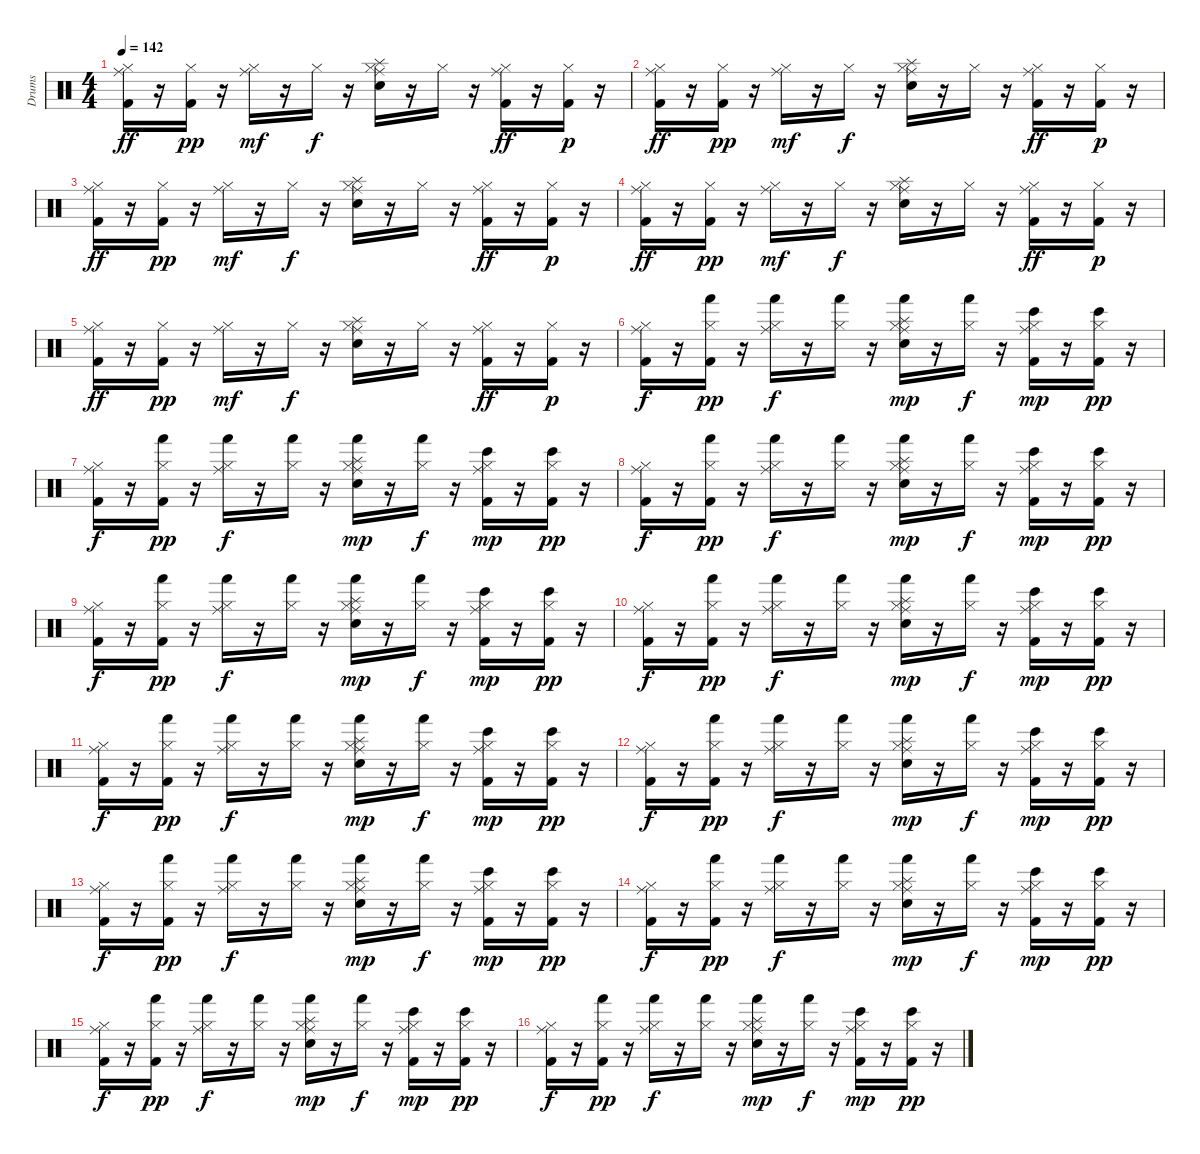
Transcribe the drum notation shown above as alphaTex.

\track ("Drums" "Drums") {instrument percussion}
\staff {score}
\articulation defaults
\ts (4 4)
\tempo 142
\clef neutral
\ks c
("Ride (middle)" "Hi-Hat (closed)" "Kick (hit) 2").16{dy ff} r.16 ("Hi-Hat (closed)" "Kick (hit) 2").16{dy pp} r.16 ("Ride (middle)" "Hi-Hat (closed)").16{dy mf} r.16 "Hi-Hat (closed)".16{dy f} r.16 ("Ride (middle)" "Hi-Hat (closed)" "Splash (hit)" "Snare (hit) 2").16 r.16 "Hi-Hat (closed)".16 r.16 ("Ride (middle)" "Hi-Hat (closed)" "Kick (hit) 2").16{dy ff} r.16 ("Hi-Hat (closed)" "Kick (hit) 2").16{dy p} r.16 |
("Ride (middle)" "Hi-Hat (closed)" "Kick (hit) 2").16{dy ff} r.16 ("Hi-Hat (closed)" "Kick (hit) 2").16{dy pp} r.16 ("Ride (middle)" "Hi-Hat (closed)").16{dy mf} r.16 "Hi-Hat (closed)".16{dy f} r.16 ("Ride (middle)" "Hi-Hat (closed)" "Splash (hit)" "Snare (hit) 2").16 r.16 "Hi-Hat (closed)".16 r.16 ("Ride (middle)" "Hi-Hat (closed)" "Kick (hit) 2").16{dy ff} r.16 ("Hi-Hat (closed)" "Kick (hit) 2").16{dy p} r.16 |
("Ride (middle)" "Hi-Hat (closed)" "Kick (hit) 2").16{dy ff} r.16 ("Hi-Hat (closed)" "Kick (hit) 2").16{dy pp} r.16 ("Ride (middle)" "Hi-Hat (closed)").16{dy mf} r.16 "Hi-Hat (closed)".16{dy f} r.16 ("Ride (middle)" "Hi-Hat (closed)" "Splash (hit)" "Snare (hit) 2").16 r.16 "Hi-Hat (closed)".16 r.16 ("Ride (middle)" "Hi-Hat (closed)" "Kick (hit) 2").16{dy ff} r.16 ("Hi-Hat (closed)" "Kick (hit) 2").16{dy p} r.16 |
("Ride (middle)" "Hi-Hat (closed)" "Kick (hit) 2").16{dy ff} r.16 ("Hi-Hat (closed)" "Kick (hit) 2").16{dy pp} r.16 ("Ride (middle)" "Hi-Hat (closed)").16{dy mf} r.16 "Hi-Hat (closed)".16{dy f} r.16 ("Ride (middle)" "Hi-Hat (closed)" "Splash (hit)" "Snare (hit) 2").16 r.16 "Hi-Hat (closed)".16 r.16 ("Ride (middle)" "Hi-Hat (closed)" "Kick (hit) 2").16{dy ff} r.16 ("Hi-Hat (closed)" "Kick (hit) 2").16{dy p} r.16 |
("Ride (middle)" "Hi-Hat (closed)" "Kick (hit) 2").16{dy ff} r.16 ("Hi-Hat (closed)" "Kick (hit) 2").16{dy pp} r.16 ("Ride (middle)" "Hi-Hat (closed)").16{dy mf} r.16 "Hi-Hat (closed)".16{dy f} r.16 ("Ride (middle)" "Hi-Hat (closed)" "Splash (hit)" "Snare (hit) 2").16 r.16 "Hi-Hat (closed)".16 r.16 ("Ride (middle)" "Hi-Hat (closed)" "Kick (hit) 2").16{dy ff} r.16 ("Hi-Hat (closed)" "Kick (hit) 2").16{dy p} r.16 |
("Ride (middle)" "Hi-Hat (closed)" "Kick (hit) 2").16{dy f} r.16 ("Hi-Hat (closed)" "Hand (hit)" "Kick (hit) 2").16{dy pp} r.16 ("Ride (middle)" "Hi-Hat (closed)" "Hand (hit)").16{dy f} r.16 ("Hi-Hat (closed)" "Hand (hit)").16 r.16 ("Ride (middle)" "Hi-Hat (closed)" "Splash (hit)" "Hand (hit)" "Snare (hit) 2").16{dy mp} r.16 ("Hi-Hat (closed)" "Hand (hit)").16{dy f} r.16 ("Ride (middle)" "Hi-Hat (closed)" "Bongo High (hit)" "Kick (hit) 2").16{dy mp} r.16 ("Hi-Hat (closed)" "Bongo High (hit)" "Kick (hit) 2").16{dy pp} r.16 |
("Ride (middle)" "Hi-Hat (closed)" "Kick (hit) 2").16{dy f} r.16 ("Hi-Hat (closed)" "Hand (hit)" "Kick (hit) 2").16{dy pp} r.16 ("Ride (middle)" "Hi-Hat (closed)" "Hand (hit)").16{dy f} r.16 ("Hi-Hat (closed)" "Hand (hit)").16 r.16 ("Ride (middle)" "Hi-Hat (closed)" "Splash (hit)" "Hand (hit)" "Snare (hit) 2").16{dy mp} r.16 ("Hi-Hat (closed)" "Hand (hit)").16{dy f} r.16 ("Ride (middle)" "Hi-Hat (closed)" "Bongo High (hit)" "Kick (hit) 2").16{dy mp} r.16 ("Hi-Hat (closed)" "Bongo High (hit)" "Kick (hit) 2").16{dy pp} r.16 |
("Ride (middle)" "Hi-Hat (closed)" "Kick (hit) 2").16{dy f} r.16 ("Hi-Hat (closed)" "Hand (hit)" "Kick (hit) 2").16{dy pp} r.16 ("Ride (middle)" "Hi-Hat (closed)" "Hand (hit)").16{dy f} r.16 ("Hi-Hat (closed)" "Hand (hit)").16 r.16 ("Ride (middle)" "Hi-Hat (closed)" "Splash (hit)" "Hand (hit)" "Snare (hit) 2").16{dy mp} r.16 ("Hi-Hat (closed)" "Hand (hit)").16{dy f} r.16 ("Ride (middle)" "Hi-Hat (closed)" "Bongo High (hit)" "Kick (hit) 2").16{dy mp} r.16 ("Hi-Hat (closed)" "Bongo High (hit)" "Kick (hit) 2").16{dy pp} r.16 |
("Ride (middle)" "Hi-Hat (closed)" "Kick (hit) 2").16{dy f} r.16 ("Hi-Hat (closed)" "Hand (hit)" "Kick (hit) 2").16{dy pp} r.16 ("Ride (middle)" "Hi-Hat (closed)" "Hand (hit)").16{dy f} r.16 ("Hi-Hat (closed)" "Hand (hit)").16 r.16 ("Ride (middle)" "Hi-Hat (closed)" "Splash (hit)" "Hand (hit)" "Snare (hit) 2").16{dy mp} r.16 ("Hi-Hat (closed)" "Hand (hit)").16{dy f} r.16 ("Ride (middle)" "Hi-Hat (closed)" "Bongo High (hit)" "Kick (hit) 2").16{dy mp} r.16 ("Hi-Hat (closed)" "Bongo High (hit)" "Kick (hit) 2").16{dy pp} r.16 |
("Ride (middle)" "Hi-Hat (closed)" "Kick (hit) 2").16{dy f} r.16 ("Hi-Hat (closed)" "Hand (hit)" "Kick (hit) 2").16{dy pp} r.16 ("Ride (middle)" "Hi-Hat (closed)" "Hand (hit)").16{dy f} r.16 ("Hi-Hat (closed)" "Hand (hit)").16 r.16 ("Ride (middle)" "Hi-Hat (closed)" "Splash (hit)" "Hand (hit)" "Snare (hit) 2").16{dy mp} r.16 ("Hi-Hat (closed)" "Hand (hit)").16{dy f} r.16 ("Ride (middle)" "Hi-Hat (closed)" "Bongo High (hit)" "Kick (hit) 2").16{dy mp} r.16 ("Hi-Hat (closed)" "Bongo High (hit)" "Kick (hit) 2").16{dy pp} r.16 |
("Ride (middle)" "Hi-Hat (closed)" "Kick (hit) 2").16{dy f} r.16 ("Hi-Hat (closed)" "Hand (hit)" "Kick (hit) 2").16{dy pp} r.16 ("Ride (middle)" "Hi-Hat (closed)" "Hand (hit)").16{dy f} r.16 ("Hi-Hat (closed)" "Hand (hit)").16 r.16 ("Ride (middle)" "Hi-Hat (closed)" "Splash (hit)" "Hand (hit)" "Snare (hit) 2").16{dy mp} r.16 ("Hi-Hat (closed)" "Hand (hit)").16{dy f} r.16 ("Ride (middle)" "Hi-Hat (closed)" "Bongo High (hit)" "Kick (hit) 2").16{dy mp} r.16 ("Hi-Hat (closed)" "Bongo High (hit)" "Kick (hit) 2").16{dy pp} r.16 |
("Ride (middle)" "Hi-Hat (closed)" "Kick (hit) 2").16{dy f} r.16 ("Hi-Hat (closed)" "Hand (hit)" "Kick (hit) 2").16{dy pp} r.16 ("Ride (middle)" "Hi-Hat (closed)" "Hand (hit)").16{dy f} r.16 ("Hi-Hat (closed)" "Hand (hit)").16 r.16 ("Ride (middle)" "Hi-Hat (closed)" "Splash (hit)" "Hand (hit)" "Snare (hit) 2").16{dy mp} r.16 ("Hi-Hat (closed)" "Hand (hit)").16{dy f} r.16 ("Ride (middle)" "Hi-Hat (closed)" "Bongo High (hit)" "Kick (hit) 2").16{dy mp} r.16 ("Hi-Hat (closed)" "Bongo High (hit)" "Kick (hit) 2").16{dy pp} r.16 |
("Ride (middle)" "Hi-Hat (closed)" "Kick (hit) 2").16{dy f} r.16 ("Hi-Hat (closed)" "Hand (hit)" "Kick (hit) 2").16{dy pp} r.16 ("Ride (middle)" "Hi-Hat (closed)" "Hand (hit)").16{dy f} r.16 ("Hi-Hat (closed)" "Hand (hit)").16 r.16 ("Ride (middle)" "Hi-Hat (closed)" "Splash (hit)" "Hand (hit)" "Snare (hit) 2").16{dy mp} r.16 ("Hi-Hat (closed)" "Hand (hit)").16{dy f} r.16 ("Ride (middle)" "Hi-Hat (closed)" "Bongo High (hit)" "Kick (hit) 2").16{dy mp} r.16 ("Hi-Hat (closed)" "Bongo High (hit)" "Kick (hit) 2").16{dy pp} r.16 |
("Ride (middle)" "Hi-Hat (closed)" "Kick (hit) 2").16{dy f} r.16 ("Hi-Hat (closed)" "Hand (hit)" "Kick (hit) 2").16{dy pp} r.16 ("Ride (middle)" "Hi-Hat (closed)" "Hand (hit)").16{dy f} r.16 ("Hi-Hat (closed)" "Hand (hit)").16 r.16 ("Ride (middle)" "Hi-Hat (closed)" "Splash (hit)" "Hand (hit)" "Snare (hit) 2").16{dy mp} r.16 ("Hi-Hat (closed)" "Hand (hit)").16{dy f} r.16 ("Ride (middle)" "Hi-Hat (closed)" "Bongo High (hit)" "Kick (hit) 2").16{dy mp} r.16 ("Hi-Hat (closed)" "Bongo High (hit)" "Kick (hit) 2").16{dy pp} r.16 |
("Ride (middle)" "Hi-Hat (closed)" "Kick (hit) 2").16{dy f} r.16 ("Hi-Hat (closed)" "Hand (hit)" "Kick (hit) 2").16{dy pp} r.16 ("Ride (middle)" "Hi-Hat (closed)" "Hand (hit)").16{dy f} r.16 ("Hi-Hat (closed)" "Hand (hit)").16 r.16 ("Ride (middle)" "Hi-Hat (closed)" "Splash (hit)" "Hand (hit)" "Snare (hit) 2").16{dy mp} r.16 ("Hi-Hat (closed)" "Hand (hit)").16{dy f} r.16 ("Ride (middle)" "Hi-Hat (closed)" "Bongo High (hit)" "Kick (hit) 2").16{dy mp} r.16 ("Hi-Hat (closed)" "Bongo High (hit)" "Kick (hit) 2").16{dy pp} r.16 |
("Ride (middle)" "Hi-Hat (closed)" "Kick (hit) 2").16{dy f} r.16 ("Hi-Hat (closed)" "Hand (hit)" "Kick (hit) 2").16{dy pp} r.16 ("Ride (middle)" "Hi-Hat (closed)" "Hand (hit)").16{dy f} r.16 ("Hi-Hat (closed)" "Hand (hit)").16 r.16 ("Ride (middle)" "Hi-Hat (closed)" "Splash (hit)" "Hand (hit)" "Snare (hit) 2").16{dy mp} r.16 ("Hi-Hat (closed)" "Hand (hit)").16{dy f} r.16 ("Ride (middle)" "Hi-Hat (closed)" "Bongo High (hit)" "Kick (hit) 2").16{dy mp} r.16 ("Hi-Hat (closed)" "Bongo High (hit)" "Kick (hit) 2").16{dy pp} r.16
